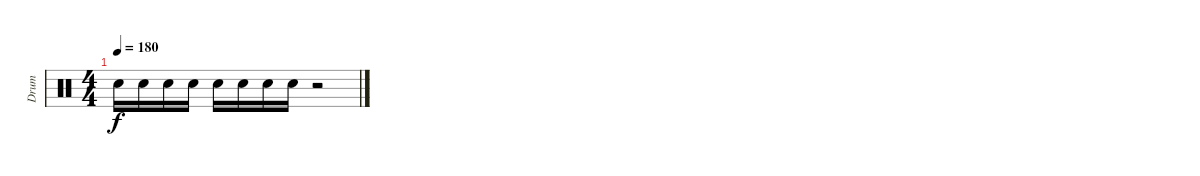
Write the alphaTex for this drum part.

\track ("Drum" "Drum") {instrument percussion}
\staff
\articulation defaults
\ts (4 4)
\tempo 180
\clef neutral
\ks c "Electric Snare (hit)".16{dy f} "Electric Snare (hit)".16 "Electric Snare (hit)".16 "Electric Snare (hit)".16 "Electric Snare (hit)".16 "Electric Snare (hit)".16 "Electric Snare (hit)".16 "Electric Snare (hit)".16
r.2
